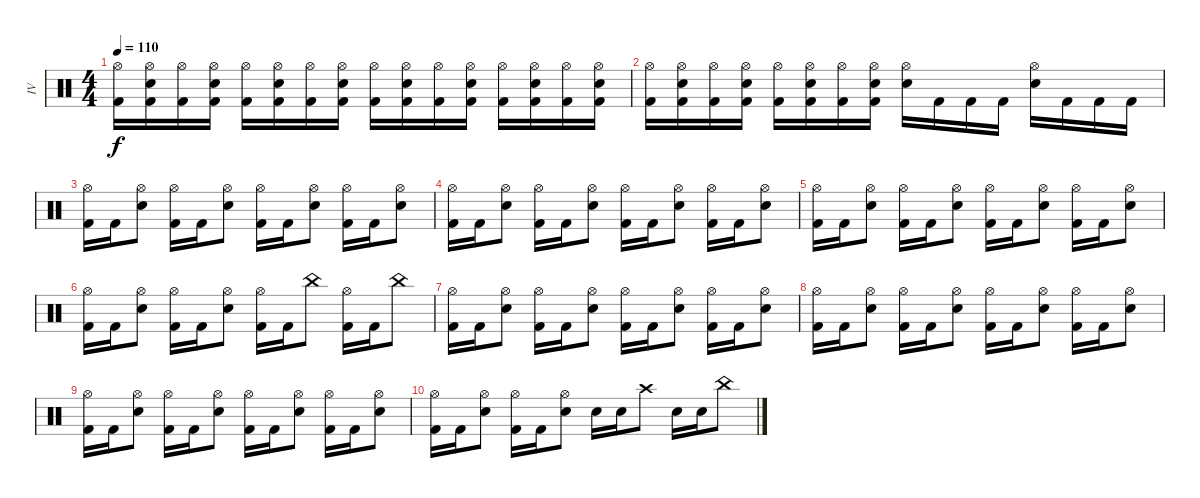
\track ("IV" "IV") {instrument percussion}
\staff {score}
\articulation defaults
\ts (4 4)
\tempo 110
\clef neutral
\ks c
("Hi-Hat (open)" "Kick (hit) 2").16{dy f} ("Hi-Hat (open)" "Snare (hit) 2" "Kick (hit) 2").16 ("Hi-Hat (open)" "Kick (hit) 2").16 ("Hi-Hat (open)" "Snare (hit) 2" "Kick (hit) 2").16 ("Hi-Hat (open)" "Kick (hit) 2").16 ("Hi-Hat (open)" "Snare (hit) 2" "Kick (hit) 2").16 ("Hi-Hat (open)" "Kick (hit) 2").16 ("Hi-Hat (open)" "Snare (hit) 2" "Kick (hit) 2").16 ("Hi-Hat (open)" "Kick (hit) 2").16 ("Hi-Hat (open)" "Snare (hit) 2" "Kick (hit) 2").16 ("Hi-Hat (open)" "Kick (hit) 2").16 ("Hi-Hat (open)" "Snare (hit) 2" "Kick (hit) 2").16 ("Hi-Hat (open)" "Kick (hit) 2").16 ("Hi-Hat (open)" "Snare (hit) 2" "Kick (hit) 2").16 ("Hi-Hat (open)" "Kick (hit) 2").16 ("Hi-Hat (open)" "Snare (hit) 2" "Kick (hit) 2").16 |
("Hi-Hat (open)" "Kick (hit) 2").16 ("Hi-Hat (open)" "Snare (hit) 2" "Kick (hit) 2").16 ("Hi-Hat (open)" "Kick (hit) 2").16 ("Hi-Hat (open)" "Snare (hit) 2" "Kick (hit) 2").16 ("Hi-Hat (open)" "Kick (hit) 2").16 ("Hi-Hat (open)" "Snare (hit) 2" "Kick (hit) 2").16 ("Hi-Hat (open)" "Kick (hit) 2").16 ("Hi-Hat (open)" "Snare (hit) 2" "Kick (hit) 2").16 ("Hi-Hat (open)" "Snare (hit) 2").16 "Kick (hit) 2".16 "Kick (hit) 2".16 "Kick (hit) 2".16 ("Hi-Hat (open)" "Snare (hit) 2").16 "Kick (hit) 2".16 "Kick (hit) 2".16 "Kick (hit) 2".16 |
("Hi-Hat (open)" "Kick (hit) 2").16 "Kick (hit) 2".16 ("Hi-Hat (open)" "Snare (hit) 2").8 ("Hi-Hat (open)" "Kick (hit) 2").16 "Kick (hit) 2".16 ("Hi-Hat (open)" "Snare (hit) 2").8 ("Hi-Hat (open)" "Kick (hit) 2").16 "Kick (hit) 2".16 ("Hi-Hat (open)" "Snare (hit) 2").8 ("Hi-Hat (open)" "Kick (hit) 2").16 "Kick (hit) 2".16 ("Hi-Hat (open)" "Snare (hit) 2").8 |
("Hi-Hat (open)" "Kick (hit) 2").16 "Kick (hit) 2".16 ("Hi-Hat (open)" "Snare (hit) 2").8 ("Hi-Hat (open)" "Kick (hit) 2").16 "Kick (hit) 2".16 ("Hi-Hat (open)" "Snare (hit) 2").8 ("Hi-Hat (open)" "Kick (hit) 2").16 "Kick (hit) 2".16 ("Hi-Hat (open)" "Snare (hit) 2").8 ("Hi-Hat (open)" "Kick (hit) 2").16 "Kick (hit) 2".16 ("Hi-Hat (open)" "Snare (hit) 2").8 |
("Hi-Hat (open)" "Kick (hit) 2").16 "Kick (hit) 2".16 ("Hi-Hat (open)" "Snare (hit) 2").8 ("Hi-Hat (open)" "Kick (hit) 2").16 "Kick (hit) 2".16 ("Hi-Hat (open)" "Snare (hit) 2").8 ("Hi-Hat (open)" "Kick (hit) 2").16 "Kick (hit) 2".16 ("Hi-Hat (open)" "Snare (hit) 2").8 ("Hi-Hat (open)" "Kick (hit) 2").16 "Kick (hit) 2".16 ("Hi-Hat (open)" "Snare (hit) 2").8 |
("Hi-Hat (open)" "Kick (hit) 2").16 "Kick (hit) 2".16 ("Hi-Hat (open)" "Snare (hit) 2").8 ("Hi-Hat (open)" "Kick (hit) 2").16 "Kick (hit) 2".16 ("Hi-Hat (open)" "Snare (hit) 2").8 ("Hi-Hat (open)" "Kick (hit) 2").16 "Kick (hit) 2".16 "China (hit)".8 ("Hi-Hat (open)" "Kick (hit) 2").16 "Kick (hit) 2".16 "China (hit)".8 |
("Hi-Hat (open)" "Kick (hit) 2").16 "Kick (hit) 2".16 ("Hi-Hat (open)" "Snare (hit) 2").8 ("Hi-Hat (open)" "Kick (hit) 2").16 "Kick (hit) 2".16 ("Hi-Hat (open)" "Snare (hit) 2").8 ("Hi-Hat (open)" "Kick (hit) 2").16 "Kick (hit) 2".16 ("Hi-Hat (open)" "Snare (hit) 2").8 ("Hi-Hat (open)" "Kick (hit) 2").16 "Kick (hit) 2".16 ("Hi-Hat (open)" "Snare (hit) 2").8 |
("Hi-Hat (open)" "Kick (hit) 2").16 "Kick (hit) 2".16 ("Hi-Hat (open)" "Snare (hit) 2").8 ("Hi-Hat (open)" "Kick (hit) 2").16 "Kick (hit) 2".16 ("Hi-Hat (open)" "Snare (hit) 2").8 ("Hi-Hat (open)" "Kick (hit) 2").16 "Kick (hit) 2".16 ("Hi-Hat (open)" "Snare (hit) 2").8 ("Hi-Hat (open)" "Kick (hit) 2").16 "Kick (hit) 2".16 ("Hi-Hat (open)" "Snare (hit) 2").8 |
("Hi-Hat (open)" "Kick (hit) 2").16 "Kick (hit) 2".16 ("Hi-Hat (open)" "Snare (hit) 2").8 ("Hi-Hat (open)" "Kick (hit) 2").16 "Kick (hit) 2".16 ("Hi-Hat (open)" "Snare (hit) 2").8 ("Hi-Hat (open)" "Kick (hit) 2").16 "Kick (hit) 2".16 ("Hi-Hat (open)" "Snare (hit) 2").8 ("Hi-Hat (open)" "Kick (hit) 2").16 "Kick (hit) 2".16 ("Hi-Hat (open)" "Snare (hit) 2").8 |
("Hi-Hat (open)" "Kick (hit) 2").16 "Kick (hit) 2".16 ("Hi-Hat (open)" "Snare (hit) 2").8 ("Hi-Hat (open)" "Kick (hit) 2").16 "Kick (hit) 2".16 ("Hi-Hat (open)" "Snare (hit) 2").8 "Snare (hit) 2".16 "Snare (hit) 2".16 "Crash high (hit)".8 "Snare (hit) 2".16 "Snare (hit) 2".16 "China (hit)".8
